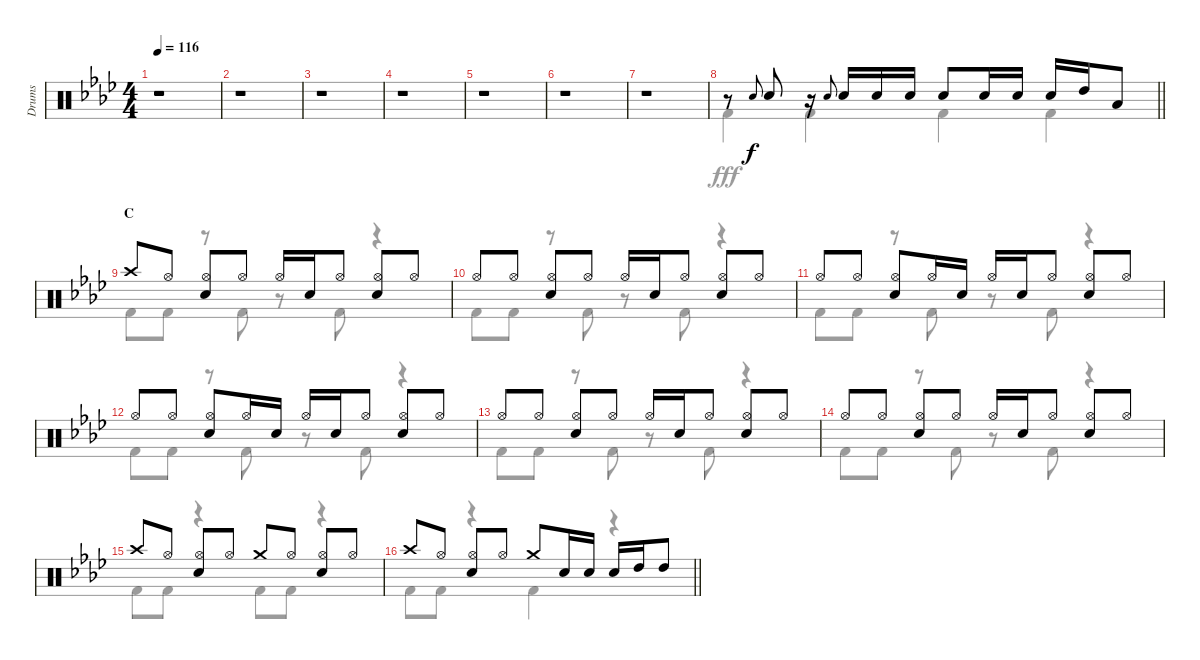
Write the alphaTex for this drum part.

\track ("Drums" "Drums") {instrument percussion}
\staff {score}
\articulation defaults
\voice
\ts (4 4)
\tempo 116
\clef neutral
\ks ab
r.1{dy f} |
r.1 |
r.1 |
r.1 |
r.1 |
r.1 |
r.1 |
\barLineRight lightlight
r.8 "Snare (hit) 2".8{gr onbeat} "Snare (hit) 2".8 r.16 "Snare (hit) 2".8{gr onbeat} "Snare (hit) 2".16 "Snare (hit) 2".16 "Snare (hit) 2".16 "Snare (hit) 2".8 "Snare (hit) 2".16 "Snare (hit) 2".16 "Snare (hit) 2".16 "High Tom (hit)".16 "Low Tom (hit)".8 |
\section ("" "C")
"Crash high (hit)".8 "Hi-Hat (open)".8 ("Hi-Hat (open)" "Snare (hit) 2").8 "Hi-Hat (open)".8 "Hi-Hat (open)".16 "Snare (hit) 2".16 "Hi-Hat (open)".8 ("Hi-Hat (open)" "Snare (hit) 2").8 "Hi-Hat (open)".8 |
"Hi-Hat (open)".8 "Hi-Hat (open)".8 ("Hi-Hat (open)" "Snare (hit) 2").8 "Hi-Hat (open)".8 "Hi-Hat (open)".16 "Snare (hit) 2".16 "Hi-Hat (open)".8 ("Hi-Hat (open)" "Snare (hit) 2").8 "Hi-Hat (open)".8 |
"Hi-Hat (open)".8 "Hi-Hat (open)".8 ("Hi-Hat (open)" "Snare (hit) 2").8 "Hi-Hat (open)".16 "Snare (hit) 2".16 "Hi-Hat (open)".16 "Snare (hit) 2".16 "Hi-Hat (open)".8 ("Hi-Hat (open)" "Snare (hit) 2").8 "Hi-Hat (open)".8 |
"Hi-Hat (open)".8 "Hi-Hat (open)".8 ("Hi-Hat (open)" "Snare (hit) 2").8 "Hi-Hat (open)".16 "Snare (hit) 2".16 "Hi-Hat (open)".16 "Snare (hit) 2".16 "Hi-Hat (open)".8 ("Hi-Hat (open)" "Snare (hit) 2").8 "Hi-Hat (open)".8 |
"Hi-Hat (open)".8 "Hi-Hat (open)".8 ("Hi-Hat (open)" "Snare (hit) 2").8 "Hi-Hat (open)".8 "Hi-Hat (open)".16 "Snare (hit) 2".16 "Hi-Hat (open)".8 ("Hi-Hat (open)" "Snare (hit) 2").8 "Hi-Hat (open)".8 |
"Hi-Hat (open)".8 "Hi-Hat (open)".8 ("Hi-Hat (open)" "Snare (hit) 2").8 "Hi-Hat (open)".8 "Hi-Hat (open)".16 "Snare (hit) 2".16 "Hi-Hat (open)".8 ("Hi-Hat (open)" "Snare (hit) 2").8 "Hi-Hat (open)".8 |
"Crash high (hit)".8 "Hi-Hat (open)".8 ("Hi-Hat (open)" "Snare (hit) 2").8 "Hi-Hat (open)".8 "Crash medium (hit)".8 "Hi-Hat (open)".8 ("Hi-Hat (open)" "Snare (hit) 2").8 "Hi-Hat (open)".8 |
\barLineRight lightlight "Crash high (hit)".8 "Hi-Hat (open)".8
("Hi-Hat (open)" "Snare (hit) 2").8 "Hi-Hat (open)".8 "Crash medium (hit)".8 "Snare (hit) 2".16 "Snare (hit) 2".16 "Snare (hit) 2".16 "High Tom (hit)".16 "High Tom (hit)".8
\voice
\clef neutral
\ottava regular
\simile none
\ks ab
r.1{dy fff} |
r.1 |
r.1 |
r.1 |
r.1 |
r.1 |
r.1 |
\barLineRight lightlight "Kick (hit) 2".4 "Kick (hit) 2".4 "Kick (hit) 2".4 "Kick (hit) 2".4
|
"Kick (hit) 2".8 "Kick (hit) 2".8 r.8 "Kick (hit) 2".8 r.8 "Kick (hit) 2".8 r.4 |
"Kick (hit) 2".8 "Kick (hit) 2".8 r.8 "Kick (hit) 2".8 r.8 "Kick (hit) 2".8 r.4 |
"Kick (hit) 2".8 "Kick (hit) 2".8 r.8 "Kick (hit) 2".8 r.8 "Kick (hit) 2".8 r.4 |
"Kick (hit) 2".8 "Kick (hit) 2".8 r.8 "Kick (hit) 2".8 r.8 "Kick (hit) 2".8 r.4 |
"Kick (hit) 2".8 "Kick (hit) 2".8 r.8 "Kick (hit) 2".8 r.8 "Kick (hit) 2".8 r.4 |
"Kick (hit) 2".8 "Kick (hit) 2".8 r.8 "Kick (hit) 2".8 r.8 "Kick (hit) 2".8 r.4 |
"Kick (hit) 2".8 "Kick (hit) 2".8 r.4 "Kick (hit) 2".8 "Kick (hit) 2".8 r.4 |
\barLineRight lightlight "Kick (hit) 2".8 "Kick (hit) 2".8
r.4 "Kick (hit) 2".4 r.4
